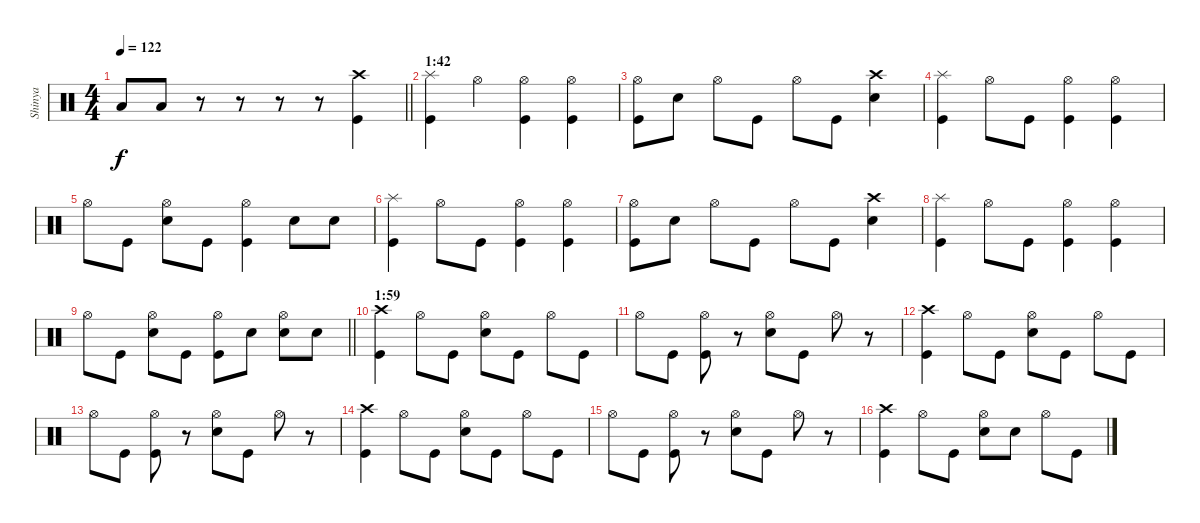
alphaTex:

\track ("Shinya" "Shinya") {instrument percussion}
\staff {score}
\articulation defaults
\ts (4 4)
\tempo 122
\clef neutral
\barLineRight lightlight
\ks c "Low Floor Tom (hit)".8{dy f} "Low Floor Tom (hit)".8
r.8 r.8 r.8 r.8 ("Crash high (hit)" "Kick (hit)").4 |
\section ("" "1:42")
("Splash (hit)" "Kick (hit)").4 "Hi-Hat (open)".4 ("Hi-Hat (open)" "Kick (hit)").4 ("Hi-Hat (open)" "Kick (hit)").4 |
("Hi-Hat (open)" "Kick (hit)").8 "Snare (hit) 2".8 "Hi-Hat (open)".8 "Kick (hit)".8 "Hi-Hat (open)".8 "Kick (hit)".8 ("Crash high (hit)" "Snare (hit) 2").4 |
("Splash (hit)" "Kick (hit)").4 "Hi-Hat (open)".8 "Kick (hit)".8 ("Hi-Hat (open)" "Kick (hit)").4 ("Hi-Hat (open)" "Kick (hit)").4 |
"Hi-Hat (open)".8 "Kick (hit)".8 ("Hi-Hat (open)" "Snare (hit) 2").8 "Kick (hit)".8 ("Hi-Hat (open)" "Kick (hit)").4 "Snare (hit) 2".8 "Snare (hit) 2".8 |
("Splash (hit)" "Kick (hit)").4 "Hi-Hat (open)".8 "Kick (hit)".8 ("Hi-Hat (open)" "Kick (hit)").4 ("Hi-Hat (open)" "Kick (hit)").4 |
("Hi-Hat (open)" "Kick (hit)").8 "Snare (hit) 2".8 "Hi-Hat (open)".8 "Kick (hit)".8 "Hi-Hat (open)".8 "Kick (hit)".8 ("Crash high (hit)" "Snare (hit) 2").4 |
("Splash (hit)" "Kick (hit)").4 "Hi-Hat (open)".8 "Kick (hit)".8 ("Hi-Hat (open)" "Kick (hit)").4 ("Hi-Hat (open)" "Kick (hit)").4 |
\barLineRight lightlight "Hi-Hat (open)".8 "Kick (hit)".8
("Hi-Hat (open)" "Snare (hit) 2").8 "Kick (hit)".8 ("Hi-Hat (open)" "Kick (hit)").8 "Snare (hit) 2".8 ("Hi-Hat (open)" "Snare (hit) 2").8 "Snare (hit) 2".8 |
\section ("" "1:59")
("Crash high (hit)" "Kick (hit)").4 "Hi-Hat (open)".8 "Kick (hit)".8 ("Hi-Hat (open)" "Snare (hit) 2").8 "Kick (hit)".8 "Hi-Hat (open)".8 "Kick (hit)".8 |
"Hi-Hat (open)".8 "Kick (hit)".8 ("Hi-Hat (open)" "Kick (hit)").8 r.8 ("Hi-Hat (open)" "Snare (hit) 2").8 "Kick (hit)".8 "Hi-Hat (open)".8 r.8 |
("Crash high (hit)" "Kick (hit)").4 "Hi-Hat (open)".8 "Kick (hit)".8 ("Hi-Hat (open)" "Snare (hit) 2").8 "Kick (hit)".8 "Hi-Hat (open)".8 "Kick (hit)".8 |
"Hi-Hat (open)".8 "Kick (hit)".8 ("Hi-Hat (open)" "Kick (hit)").8 r.8 ("Hi-Hat (open)" "Snare (hit) 2").8 "Kick (hit)".8 "Hi-Hat (open)".8 r.8 |
("Crash high (hit)" "Kick (hit)").4 "Hi-Hat (open)".8 "Kick (hit)".8 ("Hi-Hat (open)" "Snare (hit) 2").8 "Kick (hit)".8 "Hi-Hat (open)".8 "Kick (hit)".8 |
"Hi-Hat (open)".8 "Kick (hit)".8 ("Hi-Hat (open)" "Kick (hit)").8 r.8 ("Hi-Hat (open)" "Snare (hit) 2").8 "Kick (hit)".8 "Hi-Hat (open)".8 r.8 |
("Crash high (hit)" "Kick (hit)").4 "Hi-Hat (open)".8 "Kick (hit)".8 ("Hi-Hat (open)" "Snare (hit) 2").8 "Snare (hit) 2".8 "Hi-Hat (open)".8 "Kick (hit)".8
